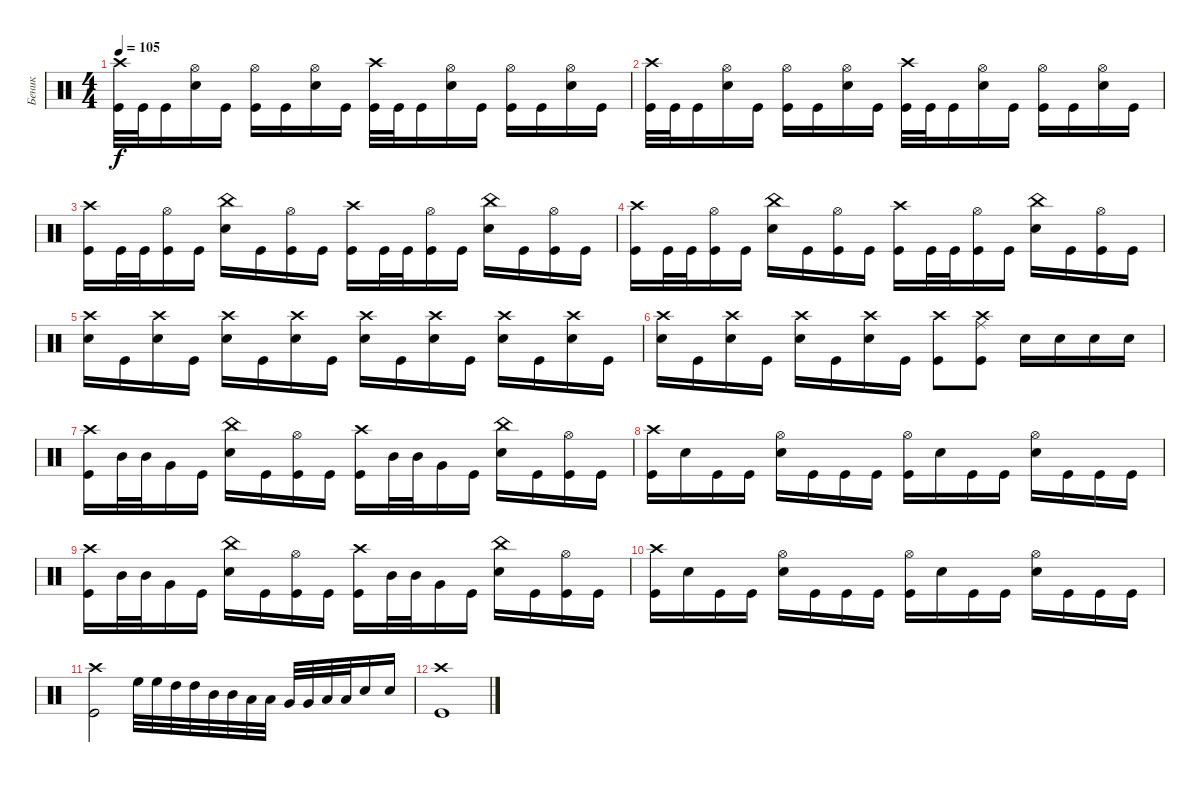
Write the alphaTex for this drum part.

\track ("Беник" "Беник") {instrument percussion}
\staff {score}
\articulation defaults
\ts (4 4)
\tempo 105
\clef neutral
\ks c
("Kick (hit)" "Crash high (hit)").32{dy f} "Kick (hit)".32 "Kick (hit)".16 ("Snare (hit) 2" "Hi-Hat (open)").16 "Kick (hit)".16 ("Kick (hit)" "Hi-Hat (open)").16 "Kick (hit)".16 ("Snare (hit) 2" "Hi-Hat (open)").16 "Kick (hit)".16 ("Kick (hit)" "Crash high (hit)").32 "Kick (hit)".32 "Kick (hit)".16 ("Snare (hit) 2" "Hi-Hat (open)").16 "Kick (hit)".16 ("Kick (hit)" "Hi-Hat (open)").16 "Kick (hit)".16 ("Snare (hit) 2" "Hi-Hat (open)").16 "Kick (hit)".16 |
("Kick (hit)" "Crash high (hit)").32 "Kick (hit)".32 "Kick (hit)".16 ("Snare (hit) 2" "Hi-Hat (open)").16 "Kick (hit)".16 ("Kick (hit)" "Hi-Hat (open)").16 "Kick (hit)".16 ("Snare (hit) 2" "Hi-Hat (open)").16 "Kick (hit)".16 ("Kick (hit)" "Crash high (hit)").32 "Kick (hit)".32 "Kick (hit)".16 ("Snare (hit) 2" "Hi-Hat (open)").16 "Kick (hit)".16 ("Kick (hit)" "Hi-Hat (open)").16 "Kick (hit)".16 ("Snare (hit) 2" "Hi-Hat (open)").16 "Kick (hit)".16 |
("Kick (hit)" "Crash high (hit)").16 "Kick (hit)".32 "Kick (hit)".32 ("Kick (hit)" "Hi-Hat (open)").16 "Kick (hit)".16 ("Snare (hit) 2" "China (hit)").16 "Kick (hit)".16 ("Kick (hit)" "Hi-Hat (open)").16 "Kick (hit)".16 ("Kick (hit)" "Crash high (hit)").16 "Kick (hit)".32 "Kick (hit)".32 ("Kick (hit)" "Hi-Hat (open)").16 "Kick (hit)".16 ("Snare (hit) 2" "China (hit)").16 "Kick (hit)".16 ("Kick (hit)" "Hi-Hat (open)").16 "Kick (hit)".16 |
("Kick (hit)" "Crash high (hit)").16 "Kick (hit)".32 "Kick (hit)".32 ("Kick (hit)" "Hi-Hat (open)").16 "Kick (hit)".16 ("Snare (hit) 2" "China (hit)").16 "Kick (hit)".16 ("Kick (hit)" "Hi-Hat (open)").16 "Kick (hit)".16 ("Kick (hit)" "Crash high (hit)").16 "Kick (hit)".32 "Kick (hit)".32 ("Kick (hit)" "Hi-Hat (open)").16 "Kick (hit)".16 ("Snare (hit) 2" "China (hit)").16 "Kick (hit)".16 ("Kick (hit)" "Hi-Hat (open)").16 "Kick (hit)".16 |
("Snare (hit) 2" "Crash high (hit)").16 "Kick (hit)".16 ("Snare (hit) 2" "Crash high (hit)").16 "Kick (hit)".16 ("Snare (hit) 2" "Crash high (hit)").16 "Kick (hit)".16 ("Snare (hit) 2" "Crash high (hit)").16 "Kick (hit)".16 ("Snare (hit) 2" "Crash high (hit)").16 "Kick (hit)".16 ("Snare (hit) 2" "Crash high (hit)").16 "Kick (hit)".16 ("Snare (hit) 2" "Crash high (hit)").16 "Kick (hit)".16 ("Snare (hit) 2" "Crash high (hit)").16 "Kick (hit)".16 |
("Snare (hit) 2" "Crash high (hit)").16 "Kick (hit)".16 ("Snare (hit) 2" "Crash high (hit)").16 "Kick (hit)".16 ("Snare (hit) 2" "Crash high (hit)").16 "Kick (hit)".16 ("Snare (hit) 2" "Crash high (hit)").16 "Kick (hit)".16 ("Kick (hit)" "Crash high (hit)").8 ("Crash high (hit)" "Ride (middle)" "Kick (hit)").8 "Snare (hit) 2".16 "Snare (hit) 2".16 "Snare (hit) 2".16 "Snare (hit) 2".16 |
("Kick (hit)" "Crash high (hit)").16 "Mid Tom (hit)".32 "Mid Tom (hit)".32 "Very Low Tom (hit)".16 "Kick (hit)".16 ("Snare (hit) 2" "China (hit)").16 "Kick (hit)".16 ("Kick (hit)" "Hi-Hat (open)").16 "Kick (hit)".16 ("Kick (hit)" "Crash high (hit)").16 "Mid Tom (hit)".32 "Mid Tom (hit)".32 "Very Low Tom (hit)".16 "Kick (hit)".16 ("Snare (hit) 2" "China (hit)").16 "Kick (hit)".16 ("Kick (hit)" "Hi-Hat (open)").16 "Kick (hit)".16 |
("Kick (hit)" "Crash high (hit)").16 "Snare (hit) 2".16 "Kick (hit)".16 "Kick (hit)".16 ("Snare (hit) 2" "Hi-Hat (open)").16 "Kick (hit)".16 "Kick (hit)".16 "Kick (hit)".16 ("Kick (hit)" "Hi-Hat (open)").16 "Snare (hit) 2".16 "Kick (hit)".16 "Kick (hit)".16 ("Snare (hit) 2" "Hi-Hat (open)").16 "Kick (hit)".16 "Kick (hit)".16 "Kick (hit)".16 |
("Kick (hit)" "Crash high (hit)").16 "Mid Tom (hit)".32 "Mid Tom (hit)".32 "Very Low Tom (hit)".16 "Kick (hit)".16 ("Snare (hit) 2" "China (hit)").16 "Kick (hit)".16 ("Kick (hit)" "Hi-Hat (open)").16 "Kick (hit)".16 ("Kick (hit)" "Crash high (hit)").16 "Mid Tom (hit)".32 "Mid Tom (hit)".32 "Very Low Tom (hit)".16 "Kick (hit)".16 ("Snare (hit) 2" "China (hit)").16 "Kick (hit)".16 ("Kick (hit)" "Hi-Hat (open)").16 "Kick (hit)".16 |
("Kick (hit)" "Crash high (hit)").16 "Snare (hit) 2".16 "Kick (hit)".16 "Kick (hit)".16 ("Snare (hit) 2" "Hi-Hat (open)").16 "Kick (hit)".16 "Kick (hit)".16 "Kick (hit)".16 ("Kick (hit)" "Hi-Hat (open)").16 "Snare (hit) 2".16 "Kick (hit)".16 "Kick (hit)".16 ("Snare (hit) 2" "Hi-Hat (open)").16 "Kick (hit)".16 "Kick (hit)".16 "Kick (hit)".16 |
("Crash high (hit)" "Kick (hit)").2 "High Floor Tom (hit)".32 "High Floor Tom (hit)".32 "High Tom (hit)".32 "High Tom (hit)".32 "Mid Tom (hit)".32 "Mid Tom (hit)".32 "Low Tom (hit)".32 "Low Tom (hit)".32 "Very Low Tom (hit)".32 "Very Low Tom (hit)".32 "Low Floor Tom (hit)".32 "Low Floor Tom (hit)".32 "Snare (hit) 2".16 "Snare (hit) 2".16 |
("Kick (hit)" "Crash high (hit)").1
